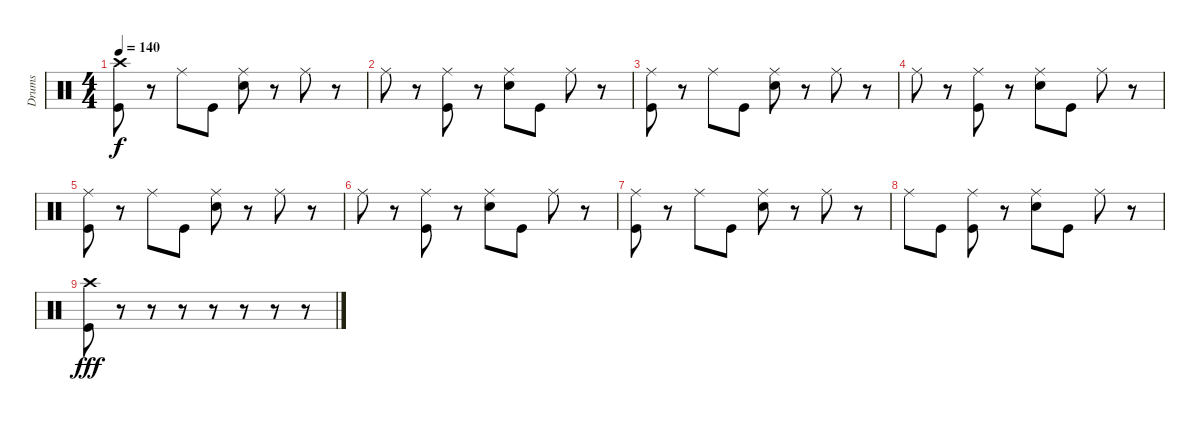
\track ("Drums" "Drums") {instrument percussion}
\staff {score}
\articulation defaults
\ts (4 4)
\tempo 140
\clef neutral
\ks c
("Crash high (hit)" "Kick (hit)").8{dy f} r.8 "Ride (middle)".8 "Kick (hit)".8 ("Ride (middle)" "Snare (hit) 2").8 r.8 "Ride (middle)".8 r.8 |
"Ride (middle)".8 r.8 ("Ride (middle)" "Kick (hit)").8 r.8 ("Ride (middle)" "Snare (hit) 2").8 "Kick (hit)".8 "Ride (middle)".8 r.8 |
("Ride (middle)" "Kick (hit)").8 r.8 "Ride (middle)".8 "Kick (hit)".8 ("Ride (middle)" "Snare (hit) 2").8 r.8 "Ride (middle)".8 r.8 |
"Ride (middle)".8 r.8 ("Ride (middle)" "Kick (hit)").8 r.8 ("Ride (middle)" "Snare (hit) 2").8 "Kick (hit)".8 "Ride (middle)".8 r.8 |
("Ride (middle)" "Kick (hit)").8 r.8 "Ride (middle)".8 "Kick (hit)".8 ("Ride (middle)" "Snare (hit) 2").8 r.8 "Ride (middle)".8 r.8 |
"Ride (middle)".8 r.8 ("Ride (middle)" "Kick (hit)").8 r.8 ("Ride (middle)" "Snare (hit) 2").8 "Kick (hit)".8 "Ride (middle)".8 r.8 |
("Ride (middle)" "Kick (hit)").8 r.8 "Ride (middle)".8 "Kick (hit)".8 ("Ride (middle)" "Snare (hit) 2").8 r.8 "Ride (middle)".8 r.8 |
"Ride (middle)".8 "Kick (hit)".8 ("Ride (middle)" "Kick (hit)").8 r.8 ("Ride (middle)" "Snare (hit) 2").8 "Kick (hit)".8 "Ride (middle)".8 r.8 |
("Crash high (hit)" "Kick (hit)").8{dy fff} r.8 r.8 r.8 r.8 r.8 r.8 r.8
